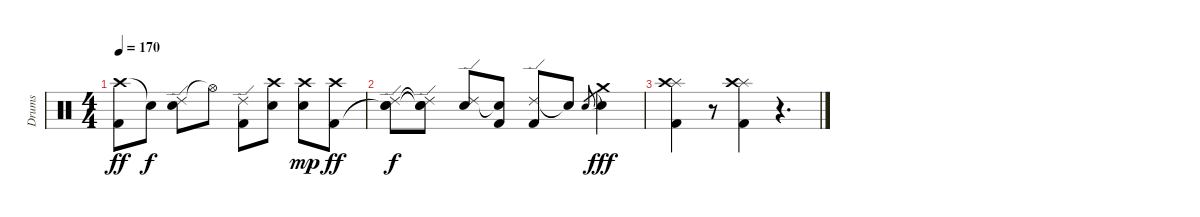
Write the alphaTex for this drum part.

\track ("Drums" "Drums") {instrument percussion}
\staff {score}
\articulation defaults
\ts (4 4)
\tempo 170
\clef neutral
\ks c
("Crash high (hit)" "Kick (hit) 2").8{dy ff} "Snare (hit)"{t}.8{dy f} ("Ride (edge) 2" "Snare (hit) 2").8 "Hi-Hat (open)"{t}.8 ("Ride (edge) 2" "Kick (hit) 2").8 ("Crash high (hit)" "Snare (hit) 2").8 ("Crash high (hit)" "Snare (hit) 2").8{dy mp} ("Crash high (hit)" "Kick (hit) 2").8{dy ff} |
("Ride (edge) 2" "Snare (hit)"{t} "Snare (hit)"{t}).8{dy f} ("Ride (edge) 2"{t} "Snare (hit)"{t} "Snare (hit)"{t}).8 ("Ride (edge) 2" "Snare (hit) 2").8 ("Snare (hit)"{t} "Kick (hit) 2").8 ("Ride (edge) 2" "Kick (hit) 2").8 "Snare (hit)"{t}.8 "Snare (hit) 2".8{gr} ("Crash medium (hit)"{t} "Snare (hit) 2").4{dy fff} |
("Splash (hit)" "Crash high (hit)" "Kick (hit) 2").4 r.8 ("Splash (hit)" "Crash high (hit)" "Kick (hit) 2").4 r.4{d}
